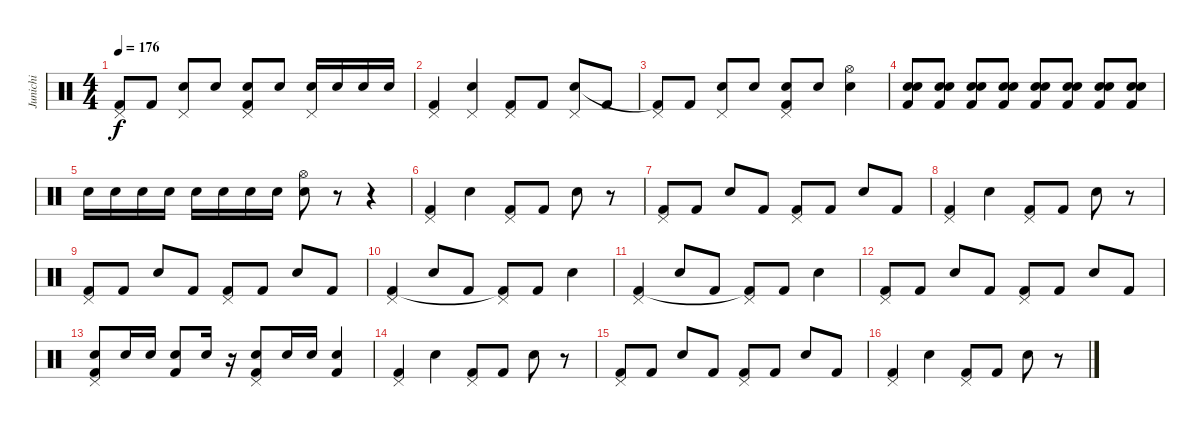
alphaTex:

\track ("Junichi" "Junichi") {instrument percussion}
\staff {score}
\articulation defaults
\ts (4 4)
\tempo 176
\clef neutral
\ks c
("Pedal Hi-Hat (hit)" "Kick (hit) 2"{t}).8{dy f} "Kick (hit) 2".8 ("Pedal Hi-Hat (hit)" "Snare (hit) 2").8 "Snare (hit) 2".8 ("Pedal Hi-Hat (hit)" "Snare (hit) 2" "Kick (hit) 2").8 "Snare (hit) 2".8 ("Pedal Hi-Hat (hit)" "Snare (hit) 2").16 "Snare (hit) 2".16 "Snare (hit) 2".16 "Snare (hit) 2".16 |
("Pedal Hi-Hat (hit)" "Kick (hit) 2").4 ("Pedal Hi-Hat (hit)" "Snare (hit) 2").4 ("Pedal Hi-Hat (hit)" "Kick (hit) 2").8 "Kick (hit) 2".8 ("Pedal Hi-Hat (hit)" "Snare (hit) 2").8 "Kick (hit) 2".8 |
("Pedal Hi-Hat (hit)" "Kick (hit) 2"{t}).8 "Kick (hit) 2".8 ("Pedal Hi-Hat (hit)" "Snare (hit) 2").8 "Snare (hit) 2".8 ("Pedal Hi-Hat (hit)" "Snare (hit) 2" "Kick (hit) 2").8 "Snare (hit) 2".8 ("Hi-Hat (open)" "Snare (hit) 2").4 |
("Snare (hit) 2" "Snare (hit) 2" "Kick (hit) 2").8 ("Snare (hit) 2" "Snare (hit) 2" "Kick (hit) 2").8 ("Snare (hit) 2" "Snare (hit) 2" "Kick (hit) 2").8 ("Snare (hit) 2" "Snare (hit) 2" "Kick (hit) 2").8 ("Snare (hit) 2" "Snare (hit) 2" "Kick (hit) 2").8 ("Snare (hit) 2" "Snare (hit) 2" "Kick (hit) 2").8 ("Snare (hit) 2" "Snare (hit) 2" "Kick (hit) 2").8 ("Snare (hit) 2" "Snare (hit) 2" "Kick (hit) 2").8 |
"Snare (hit) 2".16 "Snare (hit) 2".16 "Snare (hit) 2".16 "Snare (hit) 2".16 "Snare (hit) 2".16 "Snare (hit) 2".16 "Snare (hit) 2".16 "Snare (hit) 2".16 ("Hi-Hat (open)" "Snare (hit) 2").8 r.8 r.4 |
("Pedal Hi-Hat (hit)" "Kick (hit) 2").4 "Snare (hit) 2".4 ("Pedal Hi-Hat (hit)" "Kick (hit) 2").8 "Kick (hit) 2".8 "Snare (hit) 2".8 r.8 |
("Pedal Hi-Hat (hit)" "Kick (hit) 2").8 "Kick (hit) 2".8 "Snare (hit) 2".8 "Kick (hit) 2".8 ("Pedal Hi-Hat (hit)" "Kick (hit) 2").8 "Kick (hit) 2".8 "Snare (hit) 2".8 "Kick (hit) 2".8 |
("Pedal Hi-Hat (hit)" "Kick (hit) 2").4 "Snare (hit) 2".4 ("Pedal Hi-Hat (hit)" "Kick (hit) 2").8 "Kick (hit) 2".8 "Snare (hit) 2".8 r.8 |
("Pedal Hi-Hat (hit)" "Kick (hit) 2").8 "Kick (hit) 2".8 "Snare (hit) 2".8 "Kick (hit) 2".8 ("Pedal Hi-Hat (hit)" "Kick (hit) 2").8 "Kick (hit) 2".8 "Snare (hit) 2".8 "Kick (hit) 2".8 |
("Pedal Hi-Hat (hit)" "Kick (hit) 2").4 "Snare (hit) 2".8 "Kick (hit) 2".8 ("Pedal Hi-Hat (hit)" "Kick (hit) 2"{t}).8 "Kick (hit) 2".8 "Snare (hit) 2".4 |
("Pedal Hi-Hat (hit)" "Kick (hit) 2").4 "Snare (hit) 2".8 "Kick (hit) 2".8 ("Pedal Hi-Hat (hit)" "Kick (hit) 2"{t}).8 "Kick (hit) 2".8 "Snare (hit) 2".4 |
("Pedal Hi-Hat (hit)" "Kick (hit) 2").8 "Kick (hit) 2".8 "Snare (hit) 2".8 "Kick (hit) 2".8 ("Pedal Hi-Hat (hit)" "Kick (hit) 2").8 "Kick (hit) 2".8 "Snare (hit) 2".8 "Kick (hit) 2".8 |
("Pedal Hi-Hat (hit)" "Snare (hit) 2" "Kick (hit) 2").8 "Snare (hit) 2".16 "Snare (hit) 2".16 ("Snare (hit) 2" "Kick (hit) 2").8 "Snare (hit) 2".16 r.16 ("Pedal Hi-Hat (hit)" "Snare (hit) 2" "Kick (hit) 2").8 "Snare (hit) 2".16 "Snare (hit) 2".16 ("Snare (hit) 2" "Kick (hit) 2").4 |
("Pedal Hi-Hat (hit)" "Kick (hit) 2").4 "Snare (hit) 2".4 ("Pedal Hi-Hat (hit)" "Kick (hit) 2").8 "Kick (hit) 2".8 "Snare (hit) 2".8 r.8 |
("Pedal Hi-Hat (hit)" "Kick (hit) 2").8 "Kick (hit) 2".8 "Snare (hit) 2".8 "Kick (hit) 2".8 ("Pedal Hi-Hat (hit)" "Kick (hit) 2").8 "Kick (hit) 2".8 "Snare (hit) 2".8 "Kick (hit) 2".8 |
("Pedal Hi-Hat (hit)" "Kick (hit) 2").4 "Snare (hit) 2".4 ("Pedal Hi-Hat (hit)" "Kick (hit) 2").8 "Kick (hit) 2".8 "Snare (hit) 2".8 r.8
